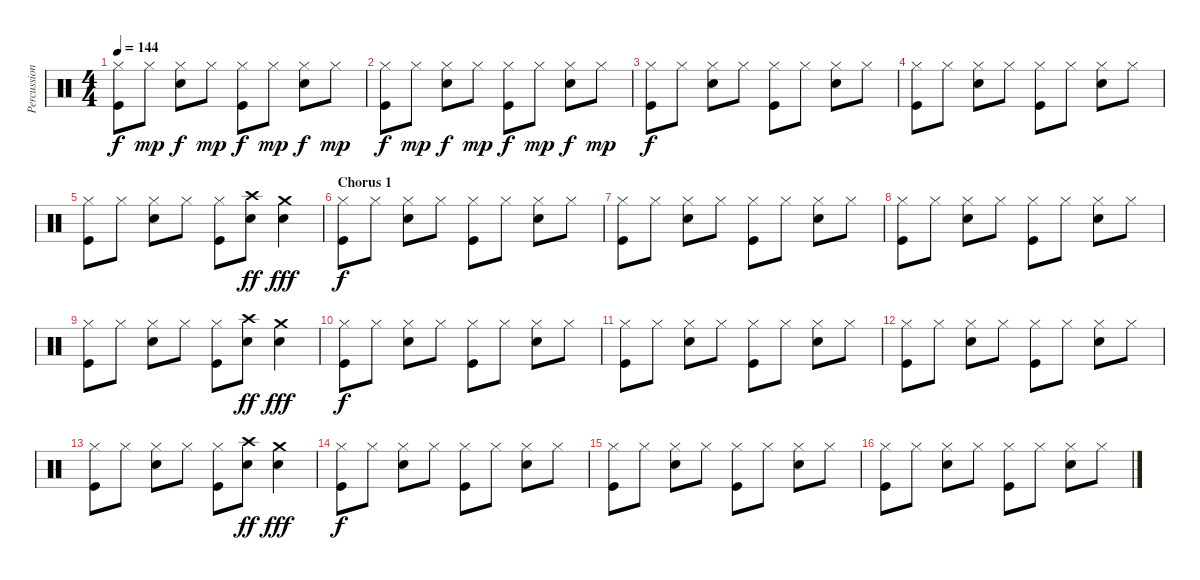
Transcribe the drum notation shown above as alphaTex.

\track ("Percussions" "Percussion") {instrument percussion}
\staff {score}
\articulation defaults
\ts (4 4)
\tempo 144
\clef neutral
\ks c
("Hi-Hat (closed)" "Kick (hit)").8{dy f} "Hi-Hat (closed)".8{dy mp} ("Hi-Hat (closed)" "Snare (hit) 2").8{dy f} "Hi-Hat (closed)".8{dy mp} ("Hi-Hat (closed)" "Kick (hit)").8{dy f} "Hi-Hat (closed)".8{dy mp} ("Hi-Hat (closed)" "Snare (hit) 2").8{dy f} "Hi-Hat (closed)".8{dy mp} |
("Hi-Hat (closed)" "Kick (hit)").8{dy f} "Hi-Hat (closed)".8{dy mp} ("Hi-Hat (closed)" "Snare (hit) 2").8{dy f} "Hi-Hat (closed)".8{dy mp} ("Hi-Hat (closed)" "Kick (hit)").8{dy f} "Hi-Hat (closed)".8{dy mp} ("Hi-Hat (closed)" "Snare (hit) 2").8{dy f} "Hi-Hat (closed)".8{dy mp} |
("Hi-Hat (closed)" "Kick (hit)").8{dy f} "Hi-Hat (closed)".8 ("Hi-Hat (closed)" "Snare (hit) 2").8 "Hi-Hat (closed)".8 ("Hi-Hat (closed)" "Kick (hit)").8 "Hi-Hat (closed)".8 ("Hi-Hat (closed)" "Snare (hit) 2").8 "Hi-Hat (closed)".8 |
("Hi-Hat (closed)" "Kick (hit)").8 "Hi-Hat (closed)".8 ("Hi-Hat (closed)" "Snare (hit) 2").8 "Hi-Hat (closed)".8 ("Hi-Hat (closed)" "Kick (hit)").8 "Hi-Hat (closed)".8 ("Hi-Hat (closed)" "Snare (hit) 2").8 "Hi-Hat (closed)".8 |
("Hi-Hat (closed)" "Kick (hit)").8 "Hi-Hat (closed)".8 ("Hi-Hat (closed)" "Snare (hit) 2").8 "Hi-Hat (closed)".8 ("Hi-Hat (closed)" "Kick (hit)").8 ("Crash high (hit)" "Snare (hit) 2").8{dy ff} ("Crash medium (hit)" "Snare (hit) 2").4{dy fff} |
\section ("" "Chorus 1")
("Hi-Hat (closed)" "Kick (hit)").8{dy f} "Hi-Hat (closed)".8 ("Hi-Hat (closed)" "Snare (hit) 2").8 "Hi-Hat (closed)".8 ("Hi-Hat (closed)" "Kick (hit)").8 "Hi-Hat (closed)".8 ("Hi-Hat (closed)" "Snare (hit) 2").8 "Hi-Hat (closed)".8 |
("Hi-Hat (closed)" "Kick (hit)").8 "Hi-Hat (closed)".8 ("Hi-Hat (closed)" "Snare (hit) 2").8 "Hi-Hat (closed)".8 ("Hi-Hat (closed)" "Kick (hit)").8 "Hi-Hat (closed)".8 ("Hi-Hat (closed)" "Snare (hit) 2").8 "Hi-Hat (closed)".8 |
("Hi-Hat (closed)" "Kick (hit)").8 "Hi-Hat (closed)".8 ("Hi-Hat (closed)" "Snare (hit) 2").8 "Hi-Hat (closed)".8 ("Hi-Hat (closed)" "Kick (hit)").8 "Hi-Hat (closed)".8 ("Hi-Hat (closed)" "Snare (hit) 2").8 "Hi-Hat (closed)".8 |
("Hi-Hat (closed)" "Kick (hit)").8 "Hi-Hat (closed)".8 ("Hi-Hat (closed)" "Snare (hit) 2").8 "Hi-Hat (closed)".8 ("Hi-Hat (closed)" "Kick (hit)").8 ("Crash high (hit)" "Snare (hit) 2").8{dy ff} ("Crash medium (hit)" "Snare (hit) 2").4{dy fff} |
("Hi-Hat (closed)" "Kick (hit)").8{dy f} "Hi-Hat (closed)".8 ("Hi-Hat (closed)" "Snare (hit) 2").8 "Hi-Hat (closed)".8 ("Hi-Hat (closed)" "Kick (hit)").8 "Hi-Hat (closed)".8 ("Hi-Hat (closed)" "Snare (hit) 2").8 "Hi-Hat (closed)".8 |
("Hi-Hat (closed)" "Kick (hit)").8 "Hi-Hat (closed)".8 ("Hi-Hat (closed)" "Snare (hit) 2").8 "Hi-Hat (closed)".8 ("Hi-Hat (closed)" "Kick (hit)").8 "Hi-Hat (closed)".8 ("Hi-Hat (closed)" "Snare (hit) 2").8 "Hi-Hat (closed)".8 |
("Hi-Hat (closed)" "Kick (hit)").8 "Hi-Hat (closed)".8 ("Hi-Hat (closed)" "Snare (hit) 2").8 "Hi-Hat (closed)".8 ("Hi-Hat (closed)" "Kick (hit)").8 "Hi-Hat (closed)".8 ("Hi-Hat (closed)" "Snare (hit) 2").8 "Hi-Hat (closed)".8 |
("Hi-Hat (closed)" "Kick (hit)").8 "Hi-Hat (closed)".8 ("Hi-Hat (closed)" "Snare (hit) 2").8 "Hi-Hat (closed)".8 ("Hi-Hat (closed)" "Kick (hit)").8 ("Crash high (hit)" "Snare (hit) 2").8{dy ff} ("Crash medium (hit)" "Snare (hit) 2").4{dy fff} |
("Hi-Hat (closed)" "Kick (hit)").8{dy f} "Hi-Hat (closed)".8 ("Hi-Hat (closed)" "Snare (hit) 2").8 "Hi-Hat (closed)".8 ("Hi-Hat (closed)" "Kick (hit)").8 "Hi-Hat (closed)".8 ("Hi-Hat (closed)" "Snare (hit) 2").8 "Hi-Hat (closed)".8 |
("Hi-Hat (closed)" "Kick (hit)").8 "Hi-Hat (closed)".8 ("Hi-Hat (closed)" "Snare (hit) 2").8 "Hi-Hat (closed)".8 ("Hi-Hat (closed)" "Kick (hit)").8 "Hi-Hat (closed)".8 ("Hi-Hat (closed)" "Snare (hit) 2").8 "Hi-Hat (closed)".8 |
("Hi-Hat (closed)" "Kick (hit)").8 "Hi-Hat (closed)".8 ("Hi-Hat (closed)" "Snare (hit) 2").8 "Hi-Hat (closed)".8 ("Hi-Hat (closed)" "Kick (hit)").8 "Hi-Hat (closed)".8 ("Hi-Hat (closed)" "Snare (hit) 2").8 "Hi-Hat (closed)".8
